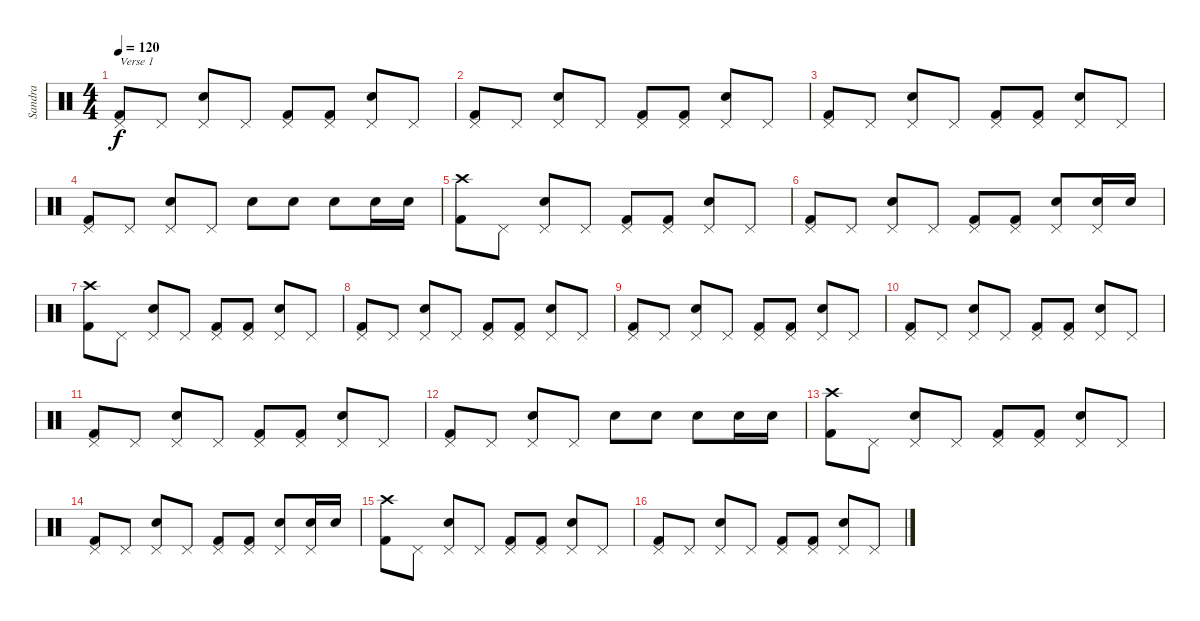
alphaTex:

\track ("Sandra" "Sandra") {instrument percussion}
\staff {score}
\articulation defaults
\ts (4 4)
\tempo 120
\clef neutral
\ks c
("Pedal Hi-Hat (hit)" "Kick (hit) 2").8{txt "Verse 1" dy f} "Pedal Hi-Hat (hit)".8 ("Pedal Hi-Hat (hit)" "Snare (hit) 2").8 "Pedal Hi-Hat (hit)".8 ("Pedal Hi-Hat (hit)" "Kick (hit) 2").8 ("Pedal Hi-Hat (hit)" "Kick (hit) 2").8 ("Pedal Hi-Hat (hit)" "Snare (hit) 2").8 "Pedal Hi-Hat (hit)".8 |
("Pedal Hi-Hat (hit)" "Kick (hit) 2").8 "Pedal Hi-Hat (hit)".8 ("Pedal Hi-Hat (hit)" "Snare (hit) 2").8 "Pedal Hi-Hat (hit)".8 ("Pedal Hi-Hat (hit)" "Kick (hit) 2").8 ("Pedal Hi-Hat (hit)" "Kick (hit) 2").8 ("Pedal Hi-Hat (hit)" "Snare (hit) 2").8 "Pedal Hi-Hat (hit)".8 |
("Pedal Hi-Hat (hit)" "Kick (hit) 2").8 "Pedal Hi-Hat (hit)".8 ("Pedal Hi-Hat (hit)" "Snare (hit) 2").8 "Pedal Hi-Hat (hit)".8 ("Pedal Hi-Hat (hit)" "Kick (hit) 2").8 ("Pedal Hi-Hat (hit)" "Kick (hit) 2").8 ("Pedal Hi-Hat (hit)" "Snare (hit) 2").8 "Pedal Hi-Hat (hit)".8 |
("Pedal Hi-Hat (hit)" "Kick (hit) 2").8 "Pedal Hi-Hat (hit)".8 ("Pedal Hi-Hat (hit)" "Snare (hit) 2").8 "Pedal Hi-Hat (hit)".8 "Snare (hit) 2".8 "Snare (hit) 2".8 "Snare (hit) 2".8 "Snare (hit) 2".16 "Snare (hit) 2".16 |
("Crash high (hit)" "Kick (hit) 2").8 "Pedal Hi-Hat (hit)".8 ("Pedal Hi-Hat (hit)" "Snare (hit) 2").8 "Pedal Hi-Hat (hit)".8 ("Pedal Hi-Hat (hit)" "Kick (hit) 2").8 ("Pedal Hi-Hat (hit)" "Kick (hit) 2").8 ("Pedal Hi-Hat (hit)" "Snare (hit) 2").8 "Pedal Hi-Hat (hit)".8 |
("Pedal Hi-Hat (hit)" "Kick (hit) 2").8 "Pedal Hi-Hat (hit)".8 ("Pedal Hi-Hat (hit)" "Snare (hit) 2").8 "Pedal Hi-Hat (hit)".8 ("Pedal Hi-Hat (hit)" "Kick (hit) 2").8 ("Pedal Hi-Hat (hit)" "Kick (hit) 2").8 ("Pedal Hi-Hat (hit)" "Snare (hit) 2").8 ("Pedal Hi-Hat (hit)" "Snare (hit) 2").16 "Snare (hit) 2".16 |
("Crash high (hit)" "Kick (hit) 2").8 "Pedal Hi-Hat (hit)".8 ("Pedal Hi-Hat (hit)" "Snare (hit) 2").8 "Pedal Hi-Hat (hit)".8 ("Pedal Hi-Hat (hit)" "Kick (hit) 2").8 ("Pedal Hi-Hat (hit)" "Kick (hit) 2").8 ("Pedal Hi-Hat (hit)" "Snare (hit) 2").8 "Pedal Hi-Hat (hit)".8 |
("Pedal Hi-Hat (hit)" "Kick (hit) 2").8 "Pedal Hi-Hat (hit)".8 ("Pedal Hi-Hat (hit)" "Snare (hit) 2").8 "Pedal Hi-Hat (hit)".8 ("Pedal Hi-Hat (hit)" "Kick (hit) 2").8 ("Pedal Hi-Hat (hit)" "Kick (hit) 2").8 ("Pedal Hi-Hat (hit)" "Snare (hit) 2").8 "Pedal Hi-Hat (hit)".8 |
("Pedal Hi-Hat (hit)" "Kick (hit) 2").8 "Pedal Hi-Hat (hit)".8 ("Pedal Hi-Hat (hit)" "Snare (hit) 2").8 "Pedal Hi-Hat (hit)".8 ("Pedal Hi-Hat (hit)" "Kick (hit) 2").8 ("Pedal Hi-Hat (hit)" "Kick (hit) 2").8 ("Pedal Hi-Hat (hit)" "Snare (hit) 2").8 "Pedal Hi-Hat (hit)".8 |
("Pedal Hi-Hat (hit)" "Kick (hit) 2").8 "Pedal Hi-Hat (hit)".8 ("Pedal Hi-Hat (hit)" "Snare (hit) 2").8 "Pedal Hi-Hat (hit)".8 ("Pedal Hi-Hat (hit)" "Kick (hit) 2").8 ("Pedal Hi-Hat (hit)" "Kick (hit) 2").8 ("Pedal Hi-Hat (hit)" "Snare (hit) 2").8 "Pedal Hi-Hat (hit)".8 |
("Pedal Hi-Hat (hit)" "Kick (hit) 2").8 "Pedal Hi-Hat (hit)".8 ("Pedal Hi-Hat (hit)" "Snare (hit) 2").8 "Pedal Hi-Hat (hit)".8 ("Pedal Hi-Hat (hit)" "Kick (hit) 2").8 ("Pedal Hi-Hat (hit)" "Kick (hit) 2").8 ("Pedal Hi-Hat (hit)" "Snare (hit) 2").8 "Pedal Hi-Hat (hit)".8 |
("Pedal Hi-Hat (hit)" "Kick (hit) 2").8 "Pedal Hi-Hat (hit)".8 ("Pedal Hi-Hat (hit)" "Snare (hit) 2").8 "Pedal Hi-Hat (hit)".8 "Snare (hit) 2".8 "Snare (hit) 2".8 "Snare (hit) 2".8 "Snare (hit) 2".16 "Snare (hit) 2".16 |
("Crash high (hit)" "Kick (hit) 2").8 "Pedal Hi-Hat (hit)".8 ("Pedal Hi-Hat (hit)" "Snare (hit) 2").8 "Pedal Hi-Hat (hit)".8 ("Pedal Hi-Hat (hit)" "Kick (hit) 2").8 ("Pedal Hi-Hat (hit)" "Kick (hit) 2").8 ("Pedal Hi-Hat (hit)" "Snare (hit) 2").8 "Pedal Hi-Hat (hit)".8 |
("Pedal Hi-Hat (hit)" "Kick (hit) 2").8 "Pedal Hi-Hat (hit)".8 ("Pedal Hi-Hat (hit)" "Snare (hit) 2").8 "Pedal Hi-Hat (hit)".8 ("Pedal Hi-Hat (hit)" "Kick (hit) 2").8 ("Pedal Hi-Hat (hit)" "Kick (hit) 2").8 ("Pedal Hi-Hat (hit)" "Snare (hit) 2").8 ("Pedal Hi-Hat (hit)" "Snare (hit) 2").16 "Snare (hit) 2".16 |
("Crash high (hit)" "Kick (hit) 2").8 "Pedal Hi-Hat (hit)".8 ("Pedal Hi-Hat (hit)" "Snare (hit) 2").8 "Pedal Hi-Hat (hit)".8 ("Pedal Hi-Hat (hit)" "Kick (hit) 2").8 ("Pedal Hi-Hat (hit)" "Kick (hit) 2").8 ("Pedal Hi-Hat (hit)" "Snare (hit) 2").8 "Pedal Hi-Hat (hit)".8 |
("Pedal Hi-Hat (hit)" "Kick (hit) 2").8 "Pedal Hi-Hat (hit)".8 ("Pedal Hi-Hat (hit)" "Snare (hit) 2").8 "Pedal Hi-Hat (hit)".8 ("Pedal Hi-Hat (hit)" "Kick (hit) 2").8 ("Pedal Hi-Hat (hit)" "Kick (hit) 2").8 ("Pedal Hi-Hat (hit)" "Snare (hit) 2").8 "Pedal Hi-Hat (hit)".8
